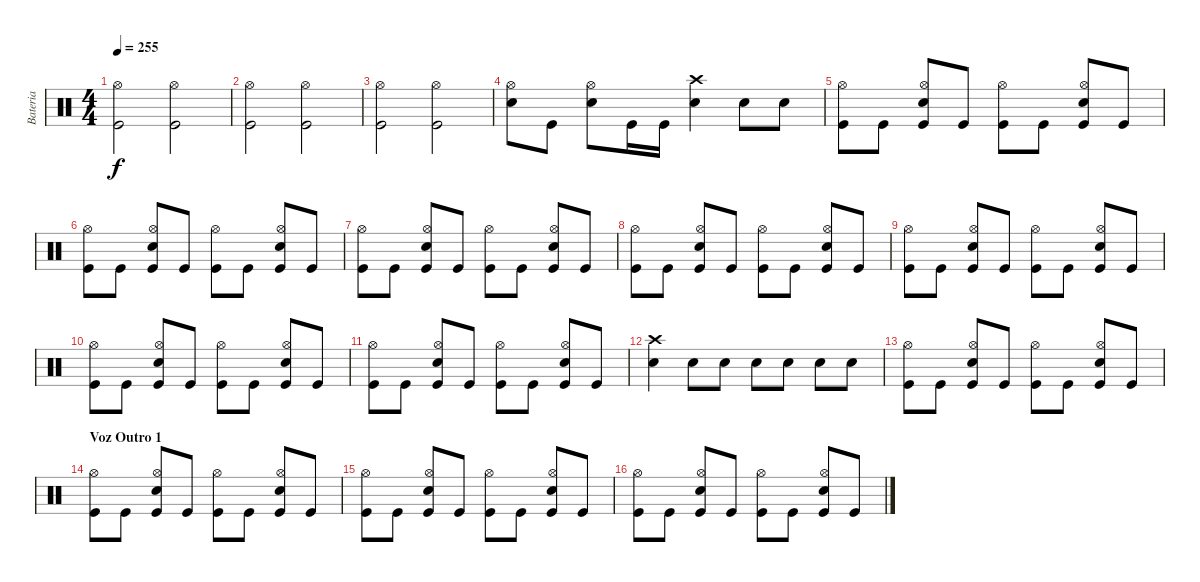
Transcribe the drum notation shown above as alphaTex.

\track ("Bateria" "Bateria") {instrument percussion}
\staff {score}
\articulation defaults
\ts (4 4)
\tempo 255
\clef neutral
\ks c
("Kick (hit)" "Hi-Hat (open)").2{dy f} ("Kick (hit)" "Hi-Hat (open)").2 |
("Kick (hit)" "Hi-Hat (open)").2 ("Kick (hit)" "Hi-Hat (open)").2 |
("Kick (hit)" "Hi-Hat (open)").2 ("Kick (hit)" "Hi-Hat (open)").2 |
("Electric Snare (hit)" "Hi-Hat (open)").8 "Kick (hit)".8 ("Electric Snare (hit)" "Hi-Hat (open)").8 "Kick (hit)".16 "Kick (hit)".16 ("Electric Snare (hit)" "Crash high (hit)").4 "Electric Snare (hit)".8 "Electric Snare (hit)".8 |
("Kick (hit)" "Hi-Hat (open)").8 "Kick (hit)".8 ("Kick (hit)" "Electric Snare (hit)" "Hi-Hat (open)").8 "Kick (hit)".8 ("Kick (hit)" "Hi-Hat (open)").8 "Kick (hit)".8 ("Kick (hit)" "Electric Snare (hit)" "Hi-Hat (open)").8 "Kick (hit)".8 |
("Kick (hit)" "Hi-Hat (open)").8 "Kick (hit)".8 ("Kick (hit)" "Electric Snare (hit)" "Hi-Hat (open)").8 "Kick (hit)".8 ("Kick (hit)" "Hi-Hat (open)").8 "Kick (hit)".8 ("Kick (hit)" "Electric Snare (hit)" "Hi-Hat (open)").8 "Kick (hit)".8 |
("Kick (hit)" "Hi-Hat (open)").8 "Kick (hit)".8 ("Kick (hit)" "Electric Snare (hit)" "Hi-Hat (open)").8 "Kick (hit)".8 ("Kick (hit)" "Hi-Hat (open)").8 "Kick (hit)".8 ("Kick (hit)" "Electric Snare (hit)" "Hi-Hat (open)").8 "Kick (hit)".8 |
("Kick (hit)" "Hi-Hat (open)").8 "Kick (hit)".8 ("Kick (hit)" "Electric Snare (hit)" "Hi-Hat (open)").8 "Kick (hit)".8 ("Kick (hit)" "Hi-Hat (open)").8 "Kick (hit)".8 ("Kick (hit)" "Electric Snare (hit)" "Hi-Hat (open)").8 "Kick (hit)".8 |
("Kick (hit)" "Hi-Hat (open)").8 "Kick (hit)".8 ("Kick (hit)" "Electric Snare (hit)" "Hi-Hat (open)").8 "Kick (hit)".8 ("Kick (hit)" "Hi-Hat (open)").8 "Kick (hit)".8 ("Kick (hit)" "Electric Snare (hit)" "Hi-Hat (open)").8 "Kick (hit)".8 |
("Kick (hit)" "Hi-Hat (open)").8 "Kick (hit)".8 ("Kick (hit)" "Electric Snare (hit)" "Hi-Hat (open)").8 "Kick (hit)".8 ("Kick (hit)" "Hi-Hat (open)").8 "Kick (hit)".8 ("Kick (hit)" "Electric Snare (hit)" "Hi-Hat (open)").8 "Kick (hit)".8 |
("Kick (hit)" "Hi-Hat (open)").8 "Kick (hit)".8 ("Kick (hit)" "Electric Snare (hit)" "Hi-Hat (open)").8 "Kick (hit)".8 ("Kick (hit)" "Hi-Hat (open)").8 "Kick (hit)".8 ("Kick (hit)" "Electric Snare (hit)" "Hi-Hat (open)").8 "Kick (hit)".8 |
("Electric Snare (hit)" "Crash high (hit)").4 "Electric Snare (hit)".8 "Electric Snare (hit)".8 "Electric Snare (hit)".8 "Electric Snare (hit)".8 "Electric Snare (hit)".8 "Electric Snare (hit)".8 |
("Kick (hit)" "Hi-Hat (open)").8 "Kick (hit)".8 ("Kick (hit)" "Electric Snare (hit)" "Hi-Hat (open)").8 "Kick (hit)".8 ("Kick (hit)" "Hi-Hat (open)").8 "Kick (hit)".8 ("Kick (hit)" "Electric Snare (hit)" "Hi-Hat (open)").8 "Kick (hit)".8 |
\section ("" "Voz Outro 1")
("Kick (hit)" "Hi-Hat (open)").8 "Kick (hit)".8 ("Kick (hit)" "Electric Snare (hit)" "Hi-Hat (open)").8 "Kick (hit)".8 ("Kick (hit)" "Hi-Hat (open)").8 "Kick (hit)".8 ("Kick (hit)" "Electric Snare (hit)" "Hi-Hat (open)").8 "Kick (hit)".8 |
("Kick (hit)" "Hi-Hat (open)").8 "Kick (hit)".8 ("Kick (hit)" "Electric Snare (hit)" "Hi-Hat (open)").8 "Kick (hit)".8 ("Kick (hit)" "Hi-Hat (open)").8 "Kick (hit)".8 ("Kick (hit)" "Electric Snare (hit)" "Hi-Hat (open)").8 "Kick (hit)".8 |
("Kick (hit)" "Hi-Hat (open)").8 "Kick (hit)".8 ("Kick (hit)" "Electric Snare (hit)" "Hi-Hat (open)").8 "Kick (hit)".8 ("Kick (hit)" "Hi-Hat (open)").8 "Kick (hit)".8 ("Kick (hit)" "Electric Snare (hit)" "Hi-Hat (open)").8 "Kick (hit)".8
